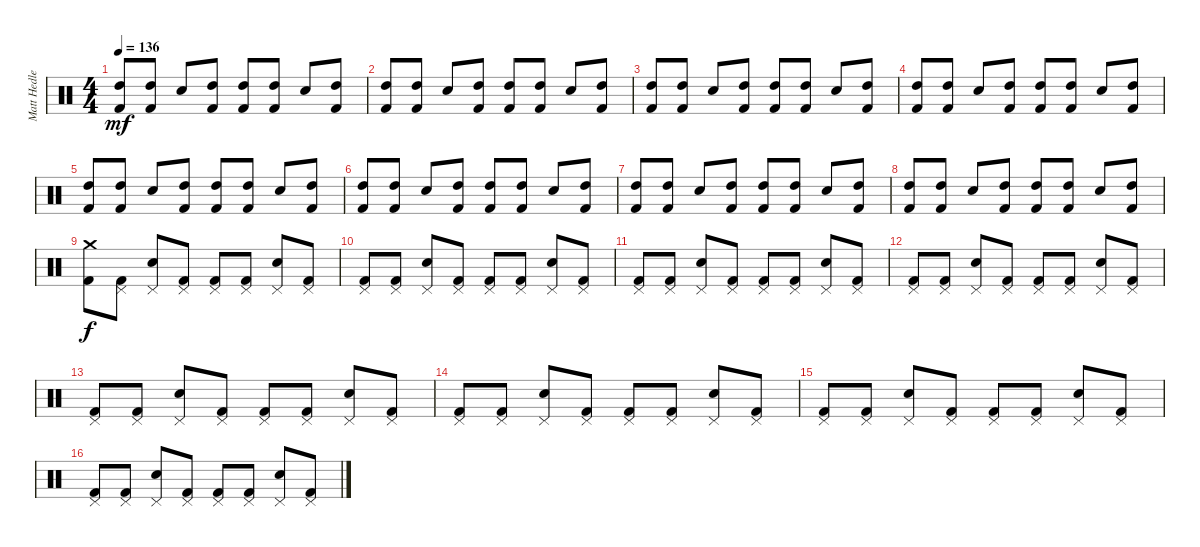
\track ("Matt Hedlers" "Matt Hedle") {instrument percussion}
\staff {score}
\articulation defaults
\ts (4 4)
\tempo 136
\clef neutral
\ks c
("High Tom (hit)" "Kick (hit) 2").8{dy mf} ("High Tom (hit)" "Kick (hit) 2").8 "Snare (hit) 2".8 ("High Tom (hit)" "Kick (hit) 2").8 ("High Tom (hit)" "Kick (hit) 2").8 ("High Tom (hit)" "Kick (hit) 2").8 "Snare (hit) 2".8 ("High Tom (hit)" "Kick (hit) 2").8 |
("High Tom (hit)" "Kick (hit) 2").8 ("High Tom (hit)" "Kick (hit) 2").8 "Snare (hit) 2".8 ("High Tom (hit)" "Kick (hit) 2").8 ("High Tom (hit)" "Kick (hit) 2").8 ("High Tom (hit)" "Kick (hit) 2").8 "Snare (hit) 2".8 ("High Tom (hit)" "Kick (hit) 2").8 |
("High Tom (hit)" "Kick (hit) 2").8 ("High Tom (hit)" "Kick (hit) 2").8 "Snare (hit) 2".8 ("High Tom (hit)" "Kick (hit) 2").8 ("High Tom (hit)" "Kick (hit) 2").8 ("High Tom (hit)" "Kick (hit) 2").8 "Snare (hit) 2".8 ("High Tom (hit)" "Kick (hit) 2").8 |
("High Tom (hit)" "Kick (hit) 2").8 ("High Tom (hit)" "Kick (hit) 2").8 "Snare (hit) 2".8 ("High Tom (hit)" "Kick (hit) 2").8 ("High Tom (hit)" "Kick (hit) 2").8 ("High Tom (hit)" "Kick (hit) 2").8 "Snare (hit) 2".8 ("High Tom (hit)" "Kick (hit) 2").8 |
("High Tom (hit)" "Kick (hit) 2").8 ("High Tom (hit)" "Kick (hit) 2").8 "Snare (hit) 2".8 ("High Tom (hit)" "Kick (hit) 2").8 ("High Tom (hit)" "Kick (hit) 2").8 ("High Tom (hit)" "Kick (hit) 2").8 "Snare (hit) 2".8 ("High Tom (hit)" "Kick (hit) 2").8 |
("High Tom (hit)" "Kick (hit) 2").8 ("High Tom (hit)" "Kick (hit) 2").8 "Snare (hit) 2".8 ("High Tom (hit)" "Kick (hit) 2").8 ("High Tom (hit)" "Kick (hit) 2").8 ("High Tom (hit)" "Kick (hit) 2").8 "Snare (hit) 2".8 ("High Tom (hit)" "Kick (hit) 2").8 |
("High Tom (hit)" "Kick (hit) 2").8 ("High Tom (hit)" "Kick (hit) 2").8 "Snare (hit) 2".8 ("High Tom (hit)" "Kick (hit) 2").8 ("High Tom (hit)" "Kick (hit) 2").8 ("High Tom (hit)" "Kick (hit) 2").8 "Snare (hit) 2".8 ("High Tom (hit)" "Kick (hit) 2").8 |
("High Tom (hit)" "Kick (hit) 2").8 ("High Tom (hit)" "Kick (hit) 2").8 "Snare (hit) 2".8 ("High Tom (hit)" "Kick (hit) 2").8 ("High Tom (hit)" "Kick (hit) 2").8 ("High Tom (hit)" "Kick (hit) 2").8 "Snare (hit) 2".8 ("High Tom (hit)" "Kick (hit) 2").8 |
("Crash medium (hit)" "Kick (hit) 2").8{dy f} ("Pedal Hi-Hat (hit)" "Kick (hit) 2").8 ("Pedal Hi-Hat (hit)" "Snare (hit) 2").8 ("Pedal Hi-Hat (hit)" "Kick (hit) 2").8 ("Pedal Hi-Hat (hit)" "Kick (hit) 2").8 ("Pedal Hi-Hat (hit)" "Kick (hit) 2").8 ("Pedal Hi-Hat (hit)" "Snare (hit) 2").8 ("Pedal Hi-Hat (hit)" "Kick (hit) 2").8 |
("Pedal Hi-Hat (hit)" "Kick (hit) 2").8 ("Pedal Hi-Hat (hit)" "Kick (hit) 2").8 ("Pedal Hi-Hat (hit)" "Snare (hit) 2").8 ("Pedal Hi-Hat (hit)" "Kick (hit) 2").8 ("Pedal Hi-Hat (hit)" "Kick (hit) 2").8 ("Pedal Hi-Hat (hit)" "Kick (hit) 2").8 ("Pedal Hi-Hat (hit)" "Snare (hit) 2").8 ("Pedal Hi-Hat (hit)" "Kick (hit) 2").8 |
("Pedal Hi-Hat (hit)" "Kick (hit) 2").8 ("Pedal Hi-Hat (hit)" "Kick (hit) 2").8 ("Pedal Hi-Hat (hit)" "Snare (hit) 2").8 ("Pedal Hi-Hat (hit)" "Kick (hit) 2").8 ("Pedal Hi-Hat (hit)" "Kick (hit) 2").8 ("Pedal Hi-Hat (hit)" "Kick (hit) 2").8 ("Pedal Hi-Hat (hit)" "Snare (hit) 2").8 ("Pedal Hi-Hat (hit)" "Kick (hit) 2").8 |
("Pedal Hi-Hat (hit)" "Kick (hit) 2").8 ("Pedal Hi-Hat (hit)" "Kick (hit) 2").8 ("Pedal Hi-Hat (hit)" "Snare (hit) 2").8 ("Pedal Hi-Hat (hit)" "Kick (hit) 2").8 ("Pedal Hi-Hat (hit)" "Kick (hit) 2").8 ("Pedal Hi-Hat (hit)" "Kick (hit) 2").8 ("Pedal Hi-Hat (hit)" "Snare (hit) 2").8 ("Pedal Hi-Hat (hit)" "Kick (hit) 2").8 |
("Pedal Hi-Hat (hit)" "Kick (hit) 2").8 ("Pedal Hi-Hat (hit)" "Kick (hit) 2").8 ("Pedal Hi-Hat (hit)" "Snare (hit) 2").8 ("Pedal Hi-Hat (hit)" "Kick (hit) 2").8 ("Pedal Hi-Hat (hit)" "Kick (hit) 2").8 ("Pedal Hi-Hat (hit)" "Kick (hit) 2").8 ("Pedal Hi-Hat (hit)" "Snare (hit) 2").8 ("Pedal Hi-Hat (hit)" "Kick (hit) 2").8 |
("Pedal Hi-Hat (hit)" "Kick (hit) 2").8 ("Pedal Hi-Hat (hit)" "Kick (hit) 2").8 ("Pedal Hi-Hat (hit)" "Snare (hit) 2").8 ("Pedal Hi-Hat (hit)" "Kick (hit) 2").8 ("Pedal Hi-Hat (hit)" "Kick (hit) 2").8 ("Pedal Hi-Hat (hit)" "Kick (hit) 2").8 ("Pedal Hi-Hat (hit)" "Snare (hit) 2").8 ("Pedal Hi-Hat (hit)" "Kick (hit) 2").8 |
("Pedal Hi-Hat (hit)" "Kick (hit) 2").8 ("Pedal Hi-Hat (hit)" "Kick (hit) 2").8 ("Pedal Hi-Hat (hit)" "Snare (hit) 2").8 ("Pedal Hi-Hat (hit)" "Kick (hit) 2").8 ("Pedal Hi-Hat (hit)" "Kick (hit) 2").8 ("Pedal Hi-Hat (hit)" "Kick (hit) 2").8 ("Pedal Hi-Hat (hit)" "Snare (hit) 2").8 ("Pedal Hi-Hat (hit)" "Kick (hit) 2").8 |
("Pedal Hi-Hat (hit)" "Kick (hit) 2").8 ("Pedal Hi-Hat (hit)" "Kick (hit) 2").8 ("Pedal Hi-Hat (hit)" "Snare (hit) 2").8 ("Pedal Hi-Hat (hit)" "Kick (hit) 2").8 ("Pedal Hi-Hat (hit)" "Kick (hit) 2").8 ("Pedal Hi-Hat (hit)" "Kick (hit) 2").8 ("Pedal Hi-Hat (hit)" "Snare (hit) 2").8 ("Pedal Hi-Hat (hit)" "Kick (hit) 2").8
